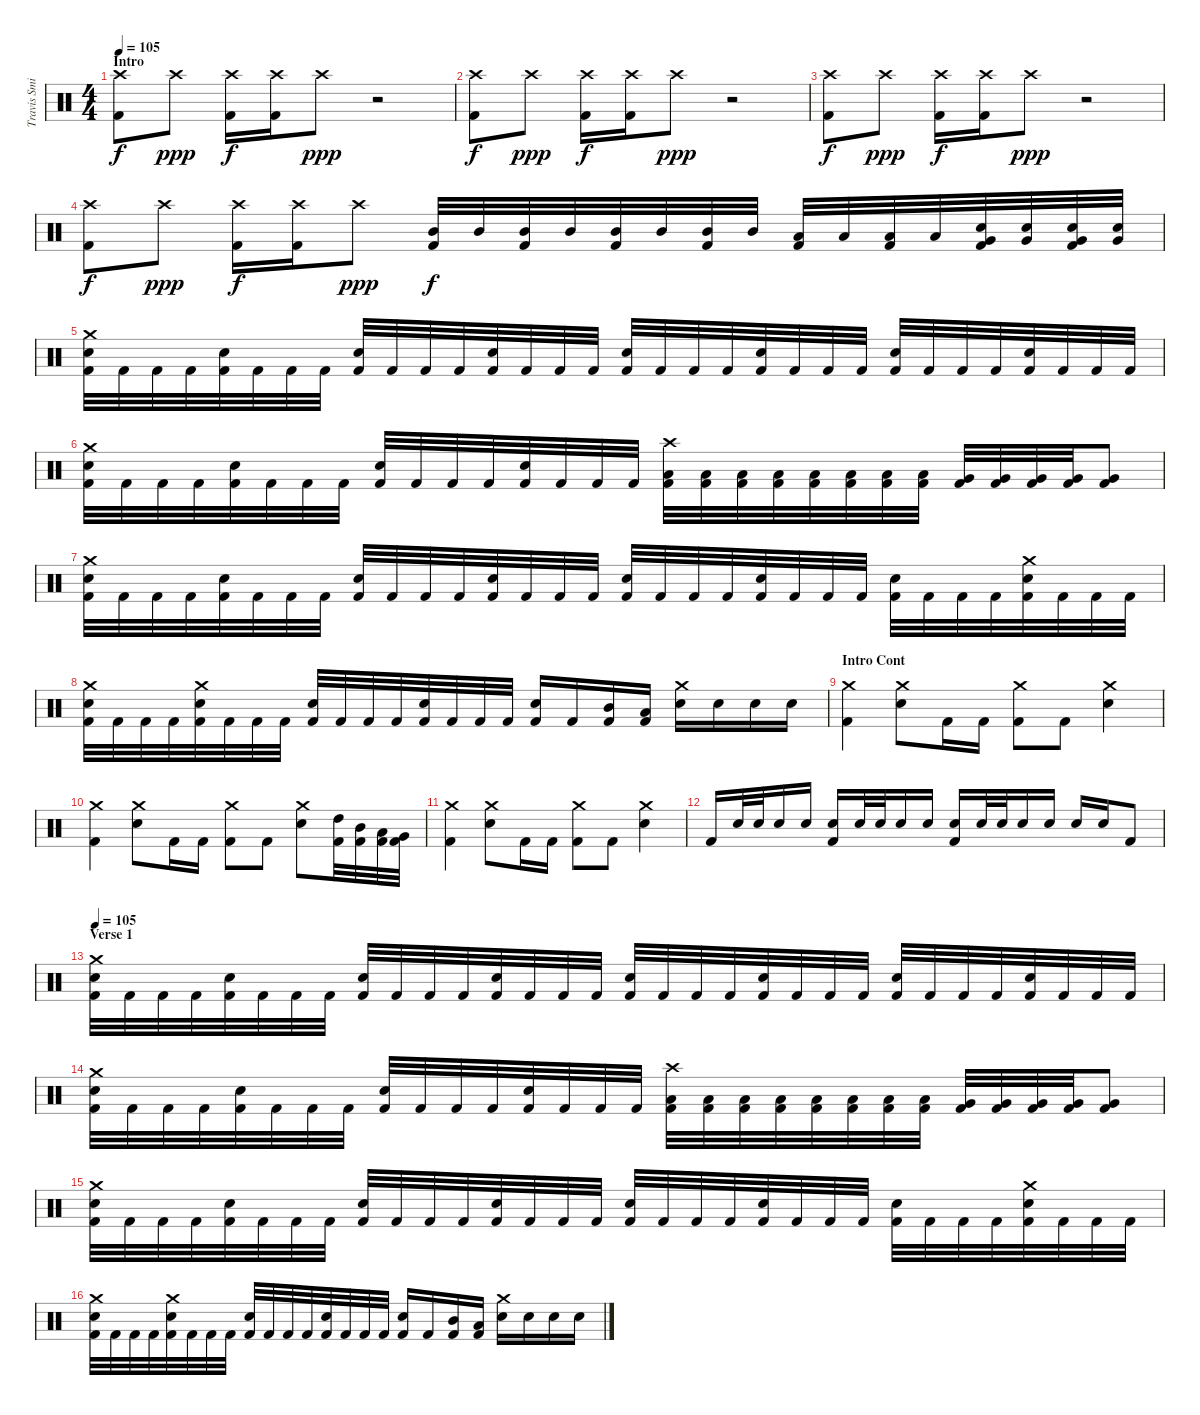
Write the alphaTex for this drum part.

\track ("Travis Smith" "Travis Smi") {instrument percussion}
\staff {score}
\articulation defaults
\ts (4 4)
\section ("" "Intro")
\tempo 105
\clef neutral
\ks c
("Crash high (hit)" "Kick (hit) 2").8{dy f} "Crash high (hit)".8{dy ppp} ("Crash high (hit)" "Kick (hit) 2").16{dy f} ("Crash high (hit)" "Kick (hit) 2").16 "Crash high (hit)".8{dy ppp} r.2 |
("Crash high (hit)" "Kick (hit) 2").8{dy f} "Crash high (hit)".8{dy ppp} ("Crash high (hit)" "Kick (hit) 2").16{dy f} ("Crash high (hit)" "Kick (hit) 2").16 "Crash high (hit)".8{dy ppp} r.2 |
("Crash high (hit)" "Kick (hit) 2").8{dy f} "Crash high (hit)".8{dy ppp} ("Crash high (hit)" "Kick (hit) 2").16{dy f} ("Crash high (hit)" "Kick (hit) 2").16 "Crash high (hit)".8{dy ppp} r.2 |
("Crash high (hit)" "Kick (hit) 2").8{dy f} "Crash high (hit)".8{dy ppp} ("Crash high (hit)" "Kick (hit) 2").16{dy f} ("Crash high (hit)" "Kick (hit) 2").16 "Crash high (hit)".8{dy ppp} ("Mid Tom (hit)" "Kick (hit) 2").32{dy f} "Mid Tom (hit)".32 ("Mid Tom (hit)" "Kick (hit) 2").32 "Mid Tom (hit)".32 ("Mid Tom (hit)" "Kick (hit) 2").32 "Mid Tom (hit)".32 ("Mid Tom (hit)" "Kick (hit) 2").32 "Mid Tom (hit)".32 ("Low Tom (hit)" "Kick (hit) 2").32 "Low Tom (hit)".32 ("Low Tom (hit)" "Kick (hit) 2").32 "Low Tom (hit)".32 ("Very Low Tom (hit)" "Snare (hit) 2" "Kick (hit) 2").32 ("Very Low Tom (hit)" "Snare (hit) 2").32 ("Very Low Tom (hit)" "Snare (hit) 2" "Kick (hit) 2").32 ("Very Low Tom (hit)" "Snare (hit) 2").32 |
("Crash medium (hit)" "Snare (hit) 2" "Kick (hit) 2").32 "Kick (hit) 2".32 "Kick (hit) 2".32 "Kick (hit) 2".32 ("Snare (hit) 2" "Kick (hit) 2").32 "Kick (hit) 2".32 "Kick (hit) 2".32 "Kick (hit) 2".32 ("Snare (hit) 2" "Kick (hit) 2").32 "Kick (hit) 2".32 "Kick (hit) 2".32 "Kick (hit) 2".32 ("Snare (hit) 2" "Kick (hit) 2").32 "Kick (hit) 2".32 "Kick (hit) 2".32 "Kick (hit) 2".32 ("Snare (hit) 2" "Kick (hit) 2").32 "Kick (hit) 2".32 "Kick (hit) 2".32 "Kick (hit) 2".32 ("Snare (hit) 2" "Kick (hit) 2").32 "Kick (hit) 2".32 "Kick (hit) 2".32 "Kick (hit) 2".32 ("Snare (hit) 2" "Kick (hit) 2").32 "Kick (hit) 2".32 "Kick (hit) 2".32 "Kick (hit) 2".32 ("Snare (hit) 2" "Kick (hit) 2").32 "Kick (hit) 2".32 "Kick (hit) 2".32 "Kick (hit) 2".32 |
("Crash medium (hit)" "Snare (hit) 2" "Kick (hit) 2").32 "Kick (hit) 2".32 "Kick (hit) 2".32 "Kick (hit) 2".32 ("Snare (hit) 2" "Kick (hit) 2").32 "Kick (hit) 2".32 "Kick (hit) 2".32 "Kick (hit) 2".32 ("Snare (hit) 2" "Kick (hit) 2").32 "Kick (hit) 2".32 "Kick (hit) 2".32 "Kick (hit) 2".32 ("Snare (hit) 2" "Kick (hit) 2").32 "Kick (hit) 2".32 "Kick (hit) 2".32 "Kick (hit) 2".32 ("Crash high (hit)" "Low Tom (hit)" "Kick (hit) 2").32 ("Low Tom (hit)" "Kick (hit) 2").32 ("Low Tom (hit)" "Kick (hit) 2").32 ("Low Tom (hit)" "Kick (hit) 2").32 ("Low Tom (hit)" "Kick (hit) 2").32 ("Low Tom (hit)" "Kick (hit) 2").32 ("Low Tom (hit)" "Kick (hit) 2").32 ("Low Tom (hit)" "Kick (hit) 2").32 ("Very Low Tom (hit)" "Kick (hit) 2").32 ("Very Low Tom (hit)" "Kick (hit) 2").32 ("Very Low Tom (hit)" "Kick (hit) 2").32 ("Very Low Tom (hit)" "Kick (hit) 2").32 ("Very Low Tom (hit)" "Kick (hit) 2").8 |
("Crash medium (hit)" "Snare (hit) 2" "Kick (hit) 2").32 "Kick (hit) 2".32 "Kick (hit) 2".32 "Kick (hit) 2".32 ("Snare (hit) 2" "Kick (hit) 2").32 "Kick (hit) 2".32 "Kick (hit) 2".32 "Kick (hit) 2".32 ("Snare (hit) 2" "Kick (hit) 2").32 "Kick (hit) 2".32 "Kick (hit) 2".32 "Kick (hit) 2".32 ("Snare (hit) 2" "Kick (hit) 2").32 "Kick (hit) 2".32 "Kick (hit) 2".32 "Kick (hit) 2".32 ("Snare (hit) 2" "Kick (hit) 2").32 "Kick (hit) 2".32 "Kick (hit) 2".32 "Kick (hit) 2".32 ("Snare (hit) 2" "Kick (hit) 2").32 "Kick (hit) 2".32 "Kick (hit) 2".32 "Kick (hit) 2".32 ("Snare (hit) 2" "Kick (hit) 2").32 "Kick (hit) 2".32 "Kick (hit) 2".32 "Kick (hit) 2".32 ("Crash medium (hit)" "Snare (hit) 2" "Kick (hit) 2").32 "Kick (hit) 2".32 "Kick (hit) 2".32 "Kick (hit) 2".32 |
("Crash medium (hit)" "Snare (hit) 2" "Kick (hit) 2").32 "Kick (hit) 2".32 "Kick (hit) 2".32 "Kick (hit) 2".32 ("Crash medium (hit)" "Snare (hit) 2" "Kick (hit) 2").32 "Kick (hit) 2".32 "Kick (hit) 2".32 "Kick (hit) 2".32 ("Snare (hit) 2" "Kick (hit) 2").32 "Kick (hit) 2".32 "Kick (hit) 2".32 "Kick (hit) 2".32 ("Snare (hit) 2" "Kick (hit) 2").32 "Kick (hit) 2".32 "Kick (hit) 2".32 "Kick (hit) 2".32 ("Snare (hit) 2" "Kick (hit) 2").16 "Kick (hit) 2".16 ("Mid Tom (hit)" "Kick (hit) 2").16 ("Low Tom (hit)" "Kick (hit) 2").16 ("Crash medium (hit)" "Snare (hit) 2").16 "Snare (hit) 2".16 "Snare (hit) 2".16 "Snare (hit) 2".16 |
\section ("" "Intro Cont")
("Crash medium (hit)" "Kick (hit) 2").4 ("Crash medium (hit)" "Snare (hit) 2").8 "Kick (hit) 2".16 "Kick (hit) 2".16 ("Crash medium (hit)" "Kick (hit) 2").8 "Kick (hit) 2".8 ("Crash medium (hit)" "Snare (hit) 2").4 |
("Crash medium (hit)" "Kick (hit) 2").4 ("Crash medium (hit)" "Snare (hit) 2").8 "Kick (hit) 2".16 "Kick (hit) 2".16 ("Crash medium (hit)" "Kick (hit) 2").8 "Kick (hit) 2".8 ("Crash medium (hit)" "Snare (hit) 2").8 ("High Tom (hit)" "Kick (hit) 2").32 ("Mid Tom (hit)" "Kick (hit) 2").32 ("Low Tom (hit)" "Kick (hit) 2").32 ("Very Low Tom (hit)" "Kick (hit) 2").32 |
("Crash medium (hit)" "Kick (hit) 2").4 ("Crash medium (hit)" "Snare (hit) 2").8 "Kick (hit) 2".16 "Kick (hit) 2".16 ("Crash medium (hit)" "Kick (hit) 2").8 "Kick (hit) 2".8 ("Crash medium (hit)" "Snare (hit) 2").4 |
"Kick (hit) 2".16 "Snare (hit) 2".32 "Snare (hit) 2".32 "Snare (hit) 2".16 "Snare (hit) 2".16 ("Snare (hit) 2" "Kick (hit) 2").16 "Snare (hit) 2".32 "Snare (hit) 2".32 "Snare (hit) 2".16 "Snare (hit) 2".16 ("Snare (hit) 2" "Kick (hit) 2").16 "Snare (hit) 2".32 "Snare (hit) 2".32 "Snare (hit) 2".16 "Snare (hit) 2".16 "Snare (hit) 2".16 "Snare (hit) 2".16 "Kick (hit) 2".8 |
\section ("" "Verse 1")
\tempo 105
("Crash medium (hit)" "Snare (hit) 2" "Kick (hit) 2").32 "Kick (hit) 2".32 "Kick (hit) 2".32 "Kick (hit) 2".32 ("Snare (hit) 2" "Kick (hit) 2").32 "Kick (hit) 2".32 "Kick (hit) 2".32 "Kick (hit) 2".32 ("Snare (hit) 2" "Kick (hit) 2").32 "Kick (hit) 2".32 "Kick (hit) 2".32 "Kick (hit) 2".32 ("Snare (hit) 2" "Kick (hit) 2").32 "Kick (hit) 2".32 "Kick (hit) 2".32 "Kick (hit) 2".32 ("Snare (hit) 2" "Kick (hit) 2").32 "Kick (hit) 2".32 "Kick (hit) 2".32 "Kick (hit) 2".32 ("Snare (hit) 2" "Kick (hit) 2").32 "Kick (hit) 2".32 "Kick (hit) 2".32 "Kick (hit) 2".32 ("Snare (hit) 2" "Kick (hit) 2").32 "Kick (hit) 2".32 "Kick (hit) 2".32 "Kick (hit) 2".32 ("Snare (hit) 2" "Kick (hit) 2").32 "Kick (hit) 2".32 "Kick (hit) 2".32 "Kick (hit) 2".32 |
("Crash medium (hit)" "Snare (hit) 2" "Kick (hit) 2").32 "Kick (hit) 2".32 "Kick (hit) 2".32 "Kick (hit) 2".32 ("Snare (hit) 2" "Kick (hit) 2").32 "Kick (hit) 2".32 "Kick (hit) 2".32 "Kick (hit) 2".32 ("Snare (hit) 2" "Kick (hit) 2").32 "Kick (hit) 2".32 "Kick (hit) 2".32 "Kick (hit) 2".32 ("Snare (hit) 2" "Kick (hit) 2").32 "Kick (hit) 2".32 "Kick (hit) 2".32 "Kick (hit) 2".32 ("Crash high (hit)" "Low Tom (hit)" "Kick (hit) 2").32 ("Low Tom (hit)" "Kick (hit) 2").32 ("Low Tom (hit)" "Kick (hit) 2").32 ("Low Tom (hit)" "Kick (hit) 2").32 ("Low Tom (hit)" "Kick (hit) 2").32 ("Low Tom (hit)" "Kick (hit) 2").32 ("Low Tom (hit)" "Kick (hit) 2").32 ("Low Tom (hit)" "Kick (hit) 2").32 ("Very Low Tom (hit)" "Kick (hit) 2").32 ("Very Low Tom (hit)" "Kick (hit) 2").32 ("Very Low Tom (hit)" "Kick (hit) 2").32 ("Very Low Tom (hit)" "Kick (hit) 2").32 ("Very Low Tom (hit)" "Kick (hit) 2").8 |
("Crash medium (hit)" "Snare (hit) 2" "Kick (hit) 2").32 "Kick (hit) 2".32 "Kick (hit) 2".32 "Kick (hit) 2".32 ("Snare (hit) 2" "Kick (hit) 2").32 "Kick (hit) 2".32 "Kick (hit) 2".32 "Kick (hit) 2".32 ("Snare (hit) 2" "Kick (hit) 2").32 "Kick (hit) 2".32 "Kick (hit) 2".32 "Kick (hit) 2".32 ("Snare (hit) 2" "Kick (hit) 2").32 "Kick (hit) 2".32 "Kick (hit) 2".32 "Kick (hit) 2".32 ("Snare (hit) 2" "Kick (hit) 2").32 "Kick (hit) 2".32 "Kick (hit) 2".32 "Kick (hit) 2".32 ("Snare (hit) 2" "Kick (hit) 2").32 "Kick (hit) 2".32 "Kick (hit) 2".32 "Kick (hit) 2".32 ("Snare (hit) 2" "Kick (hit) 2").32 "Kick (hit) 2".32 "Kick (hit) 2".32 "Kick (hit) 2".32 ("Crash medium (hit)" "Snare (hit) 2" "Kick (hit) 2").32 "Kick (hit) 2".32 "Kick (hit) 2".32 "Kick (hit) 2".32 |
("Crash medium (hit)" "Snare (hit) 2" "Kick (hit) 2").32 "Kick (hit) 2".32 "Kick (hit) 2".32 "Kick (hit) 2".32 ("Crash medium (hit)" "Snare (hit) 2" "Kick (hit) 2").32 "Kick (hit) 2".32 "Kick (hit) 2".32 "Kick (hit) 2".32 ("Snare (hit) 2" "Kick (hit) 2").32 "Kick (hit) 2".32 "Kick (hit) 2".32 "Kick (hit) 2".32 ("Snare (hit) 2" "Kick (hit) 2").32 "Kick (hit) 2".32 "Kick (hit) 2".32 "Kick (hit) 2".32 ("Snare (hit) 2" "Kick (hit) 2").16 "Kick (hit) 2".16 ("Mid Tom (hit)" "Kick (hit) 2").16 ("Low Tom (hit)" "Kick (hit) 2").16 ("Crash medium (hit)" "Snare (hit) 2").16 "Snare (hit) 2".16 "Snare (hit) 2".16 "Snare (hit) 2".16
